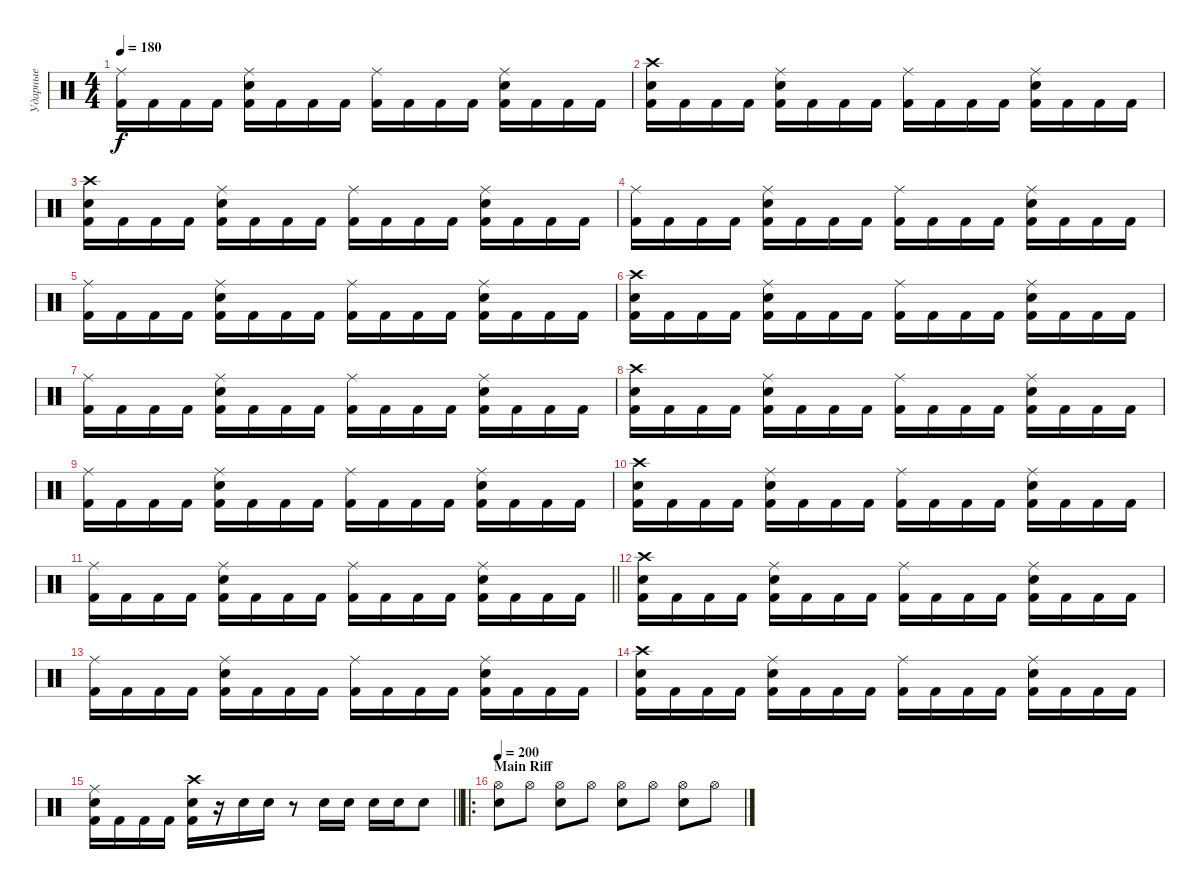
\track ("Ударные" "Ударные") {instrument percussion}
\staff {score}
\articulation defaults
\ts (4 4)
\tempo 180
\clef neutral
\ks c
("Ride (middle)" "Kick (hit) 2").16{dy f} "Kick (hit) 2".16 "Kick (hit) 2".16 "Kick (hit) 2".16 ("Ride (middle)" "Snare (hit) 2" "Kick (hit) 2").16 "Kick (hit) 2".16 "Kick (hit) 2".16 "Kick (hit) 2".16 ("Ride (middle)" "Kick (hit) 2").16 "Kick (hit) 2".16 "Kick (hit) 2".16 "Kick (hit) 2".16 ("Ride (middle)" "Snare (hit) 2" "Kick (hit) 2").16 "Kick (hit) 2".16 "Kick (hit) 2".16 "Kick (hit) 2".16 |
("Crash high (hit)" "Snare (hit) 2" "Kick (hit) 2").16 "Kick (hit) 2".16 "Kick (hit) 2".16 "Kick (hit) 2".16 ("Ride (middle)" "Snare (hit) 2" "Kick (hit) 2").16 "Kick (hit) 2".16 "Kick (hit) 2".16 "Kick (hit) 2".16 ("Ride (middle)" "Kick (hit) 2").16 "Kick (hit) 2".16 "Kick (hit) 2".16 "Kick (hit) 2".16 ("Ride (middle)" "Snare (hit) 2" "Kick (hit) 2").16 "Kick (hit) 2".16 "Kick (hit) 2".16 "Kick (hit) 2".16 |
("Crash high (hit)" "Snare (hit) 2" "Kick (hit) 2").16 "Kick (hit) 2".16 "Kick (hit) 2".16 "Kick (hit) 2".16 ("Ride (middle)" "Snare (hit) 2" "Kick (hit) 2").16 "Kick (hit) 2".16 "Kick (hit) 2".16 "Kick (hit) 2".16 ("Ride (middle)" "Kick (hit) 2").16 "Kick (hit) 2".16 "Kick (hit) 2".16 "Kick (hit) 2".16 ("Ride (middle)" "Snare (hit) 2" "Kick (hit) 2").16 "Kick (hit) 2".16 "Kick (hit) 2".16 "Kick (hit) 2".16 |
("Ride (middle)" "Kick (hit) 2").16 "Kick (hit) 2".16 "Kick (hit) 2".16 "Kick (hit) 2".16 ("Ride (middle)" "Snare (hit) 2" "Kick (hit) 2").16 "Kick (hit) 2".16 "Kick (hit) 2".16 "Kick (hit) 2".16 ("Ride (middle)" "Kick (hit) 2").16 "Kick (hit) 2".16 "Kick (hit) 2".16 "Kick (hit) 2".16 ("Ride (middle)" "Snare (hit) 2" "Kick (hit) 2").16 "Kick (hit) 2".16 "Kick (hit) 2".16 "Kick (hit) 2".16 |
("Ride (middle)" "Kick (hit) 2").16 "Kick (hit) 2".16 "Kick (hit) 2".16 "Kick (hit) 2".16 ("Ride (middle)" "Snare (hit) 2" "Kick (hit) 2").16 "Kick (hit) 2".16 "Kick (hit) 2".16 "Kick (hit) 2".16 ("Ride (middle)" "Kick (hit) 2").16 "Kick (hit) 2".16 "Kick (hit) 2".16 "Kick (hit) 2".16 ("Ride (middle)" "Snare (hit) 2" "Kick (hit) 2").16 "Kick (hit) 2".16 "Kick (hit) 2".16 "Kick (hit) 2".16 |
("Crash high (hit)" "Snare (hit) 2" "Kick (hit) 2").16 "Kick (hit) 2".16 "Kick (hit) 2".16 "Kick (hit) 2".16 ("Ride (middle)" "Snare (hit) 2" "Kick (hit) 2").16 "Kick (hit) 2".16 "Kick (hit) 2".16 "Kick (hit) 2".16 ("Ride (middle)" "Kick (hit) 2").16 "Kick (hit) 2".16 "Kick (hit) 2".16 "Kick (hit) 2".16 ("Ride (middle)" "Snare (hit) 2" "Kick (hit) 2").16 "Kick (hit) 2".16 "Kick (hit) 2".16 "Kick (hit) 2".16 |
("Ride (middle)" "Kick (hit) 2").16 "Kick (hit) 2".16 "Kick (hit) 2".16 "Kick (hit) 2".16 ("Ride (middle)" "Snare (hit) 2" "Kick (hit) 2").16 "Kick (hit) 2".16 "Kick (hit) 2".16 "Kick (hit) 2".16 ("Ride (middle)" "Kick (hit) 2").16 "Kick (hit) 2".16 "Kick (hit) 2".16 "Kick (hit) 2".16 ("Ride (middle)" "Snare (hit) 2" "Kick (hit) 2").16 "Kick (hit) 2".16 "Kick (hit) 2".16 "Kick (hit) 2".16 |
("Crash high (hit)" "Snare (hit) 2" "Kick (hit) 2").16 "Kick (hit) 2".16 "Kick (hit) 2".16 "Kick (hit) 2".16 ("Ride (middle)" "Snare (hit) 2" "Kick (hit) 2").16 "Kick (hit) 2".16 "Kick (hit) 2".16 "Kick (hit) 2".16 ("Ride (middle)" "Kick (hit) 2").16 "Kick (hit) 2".16 "Kick (hit) 2".16 "Kick (hit) 2".16 ("Ride (middle)" "Snare (hit) 2" "Kick (hit) 2").16 "Kick (hit) 2".16 "Kick (hit) 2".16 "Kick (hit) 2".16 |
("Ride (middle)" "Kick (hit) 2").16 "Kick (hit) 2".16 "Kick (hit) 2".16 "Kick (hit) 2".16 ("Ride (middle)" "Snare (hit) 2" "Kick (hit) 2").16 "Kick (hit) 2".16 "Kick (hit) 2".16 "Kick (hit) 2".16 ("Ride (middle)" "Kick (hit) 2").16 "Kick (hit) 2".16 "Kick (hit) 2".16 "Kick (hit) 2".16 ("Ride (middle)" "Snare (hit) 2" "Kick (hit) 2").16 "Kick (hit) 2".16 "Kick (hit) 2".16 "Kick (hit) 2".16 |
("Crash high (hit)" "Snare (hit) 2" "Kick (hit) 2").16 "Kick (hit) 2".16 "Kick (hit) 2".16 "Kick (hit) 2".16 ("Ride (middle)" "Snare (hit) 2" "Kick (hit) 2").16 "Kick (hit) 2".16 "Kick (hit) 2".16 "Kick (hit) 2".16 ("Ride (middle)" "Kick (hit) 2").16 "Kick (hit) 2".16 "Kick (hit) 2".16 "Kick (hit) 2".16 ("Ride (middle)" "Snare (hit) 2" "Kick (hit) 2").16 "Kick (hit) 2".16 "Kick (hit) 2".16 "Kick (hit) 2".16 |
\barLineRight lightlight
("Ride (middle)" "Kick (hit) 2").16 "Kick (hit) 2".16 "Kick (hit) 2".16 "Kick (hit) 2".16 ("Ride (middle)" "Snare (hit) 2" "Kick (hit) 2").16 "Kick (hit) 2".16 "Kick (hit) 2".16 "Kick (hit) 2".16 ("Ride (middle)" "Kick (hit) 2").16 "Kick (hit) 2".16 "Kick (hit) 2".16 "Kick (hit) 2".16 ("Ride (middle)" "Snare (hit) 2" "Kick (hit) 2").16 "Kick (hit) 2".16 "Kick (hit) 2".16 "Kick (hit) 2".16 |
("Crash high (hit)" "Snare (hit) 2" "Kick (hit) 2").16 "Kick (hit) 2".16 "Kick (hit) 2".16 "Kick (hit) 2".16 ("Ride (middle)" "Snare (hit) 2" "Kick (hit) 2").16 "Kick (hit) 2".16 "Kick (hit) 2".16 "Kick (hit) 2".16 ("Ride (middle)" "Kick (hit) 2").16 "Kick (hit) 2".16 "Kick (hit) 2".16 "Kick (hit) 2".16 ("Ride (middle)" "Snare (hit) 2" "Kick (hit) 2").16 "Kick (hit) 2".16 "Kick (hit) 2".16 "Kick (hit) 2".16 |
("Ride (middle)" "Kick (hit) 2").16 "Kick (hit) 2".16 "Kick (hit) 2".16 "Kick (hit) 2".16 ("Ride (middle)" "Snare (hit) 2" "Kick (hit) 2").16 "Kick (hit) 2".16 "Kick (hit) 2".16 "Kick (hit) 2".16 ("Ride (middle)" "Kick (hit) 2").16 "Kick (hit) 2".16 "Kick (hit) 2".16 "Kick (hit) 2".16 ("Ride (middle)" "Snare (hit) 2" "Kick (hit) 2").16 "Kick (hit) 2".16 "Kick (hit) 2".16 "Kick (hit) 2".16 |
("Crash high (hit)" "Snare (hit) 2" "Kick (hit) 2").16 "Kick (hit) 2".16 "Kick (hit) 2".16 "Kick (hit) 2".16 ("Ride (middle)" "Snare (hit) 2" "Kick (hit) 2").16 "Kick (hit) 2".16 "Kick (hit) 2".16 "Kick (hit) 2".16 ("Ride (middle)" "Kick (hit) 2").16 "Kick (hit) 2".16 "Kick (hit) 2".16 "Kick (hit) 2".16 ("Ride (middle)" "Snare (hit) 2" "Kick (hit) 2").16 "Kick (hit) 2".16 "Kick (hit) 2".16 "Kick (hit) 2".16 |
\barLineRight lightlight
("Ride (middle)" "Snare (hit) 2" "Kick (hit) 2").16 "Kick (hit) 2".16 "Kick (hit) 2".16 "Kick (hit) 2".16 ("Crash high (hit)" "Snare (hit) 2" "Kick (hit) 2").16 r.16 "Snare (hit) 2".16 "Snare (hit) 2".16 r.8 "Snare (hit) 2".16 "Snare (hit) 2".16 "Snare (hit) 2".16 "Snare (hit) 2".16 "Snare (hit) 2".8 |
\ro
\section ("" "Main Riff")
\tempo 200
("Hi-Hat (open)" "Snare (hit) 2").8 "Hi-Hat (open)".8 ("Hi-Hat (open)" "Snare (hit) 2").8 "Hi-Hat (open)".8 ("Hi-Hat (open)" "Snare (hit) 2").8 "Hi-Hat (open)".8 ("Hi-Hat (open)" "Snare (hit) 2").8 "Hi-Hat (open)".8
